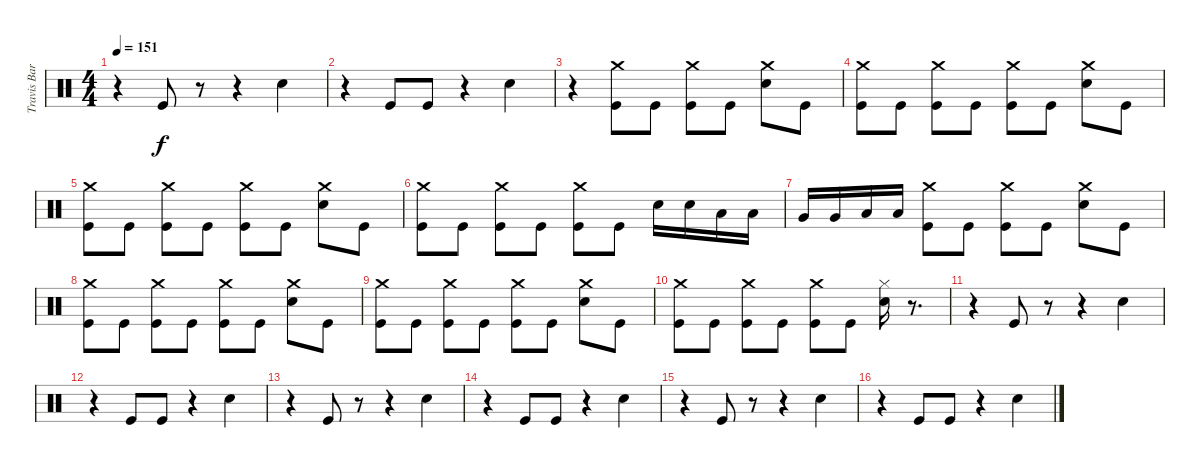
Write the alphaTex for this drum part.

\track ("Travis Barker (Drums)" "Travis Bar") {instrument percussion}
\staff {score}
\articulation defaults
\ts (4 4)
\tempo 151
\clef neutral
\ks c
r.4{dy f} "Kick (hit)".8 r.8 r.4 "Snare (hit) 2".4 |
r.4 "Kick (hit)".8 "Kick (hit)".8 r.4 "Snare (hit) 2".4 |
r.4 ("Kick (hit)" "Crash medium (hit)").8{volume 16} "Kick (hit)".8 ("Kick (hit)" "Crash medium (hit)").8 "Kick (hit)".8 ("Electric Snare (hit)" "Crash medium (hit)").8 "Kick (hit)".8 |
("Kick (hit)" "Crash medium (hit)").8 "Kick (hit)".8 ("Kick (hit)" "Crash medium (hit)").8 "Kick (hit)".8 ("Kick (hit)" "Crash medium (hit)").8 "Kick (hit)".8 ("Electric Snare (hit)" "Crash medium (hit)").8 "Kick (hit)".8 |
("Kick (hit)" "Crash medium (hit)").8 "Kick (hit)".8 ("Kick (hit)" "Crash medium (hit)").8 "Kick (hit)".8 ("Kick (hit)" "Crash medium (hit)").8 "Kick (hit)".8 ("Electric Snare (hit)" "Crash medium (hit)").8 "Kick (hit)".8 |
("Kick (hit)" "Crash medium (hit)").8 "Kick (hit)".8 ("Kick (hit)" "Crash medium (hit)").8 "Kick (hit)".8 ("Kick (hit)" "Crash medium (hit)").8 "Kick (hit)".8 "Electric Snare (hit)".16 "Electric Snare (hit)".16 "Low Tom (hit)".16 "Low Tom (hit)".16 |
"Very Low Tom (hit)".16 "Very Low Tom (hit)".16 "Low Floor Tom (hit)".16 "Low Floor Tom (hit)".16 ("Kick (hit)" "Crash medium (hit)").8 "Kick (hit)".8 ("Kick (hit)" "Crash medium (hit)").8 "Kick (hit)".8 ("Electric Snare (hit)" "Crash medium (hit)").8 "Kick (hit)".8 |
("Kick (hit)" "Crash medium (hit)").8 "Kick (hit)".8 ("Kick (hit)" "Crash medium (hit)").8 "Kick (hit)".8 ("Kick (hit)" "Crash medium (hit)").8 "Kick (hit)".8 ("Electric Snare (hit)" "Crash medium (hit)").8 "Kick (hit)".8 |
("Kick (hit)" "Crash medium (hit)").8 "Kick (hit)".8 ("Kick (hit)" "Crash medium (hit)").8 "Kick (hit)".8 ("Kick (hit)" "Crash medium (hit)").8 "Kick (hit)".8 ("Electric Snare (hit)" "Crash medium (hit)").8 "Kick (hit)".8 |
("Kick (hit)" "Crash medium (hit)").8 "Kick (hit)".8 ("Kick (hit)" "Crash medium (hit)").8 "Kick (hit)".8 ("Kick (hit)" "Crash medium (hit)").8 "Kick (hit)".8 ("Electric Snare (hit)" "Hi-Hat (closed)").16 r.8{d} |
r.4 "Kick (hit)".8 r.8 r.4 "Snare (hit) 2".4 |
r.4 "Kick (hit)".8 "Kick (hit)".8 r.4 "Snare (hit) 2".4 |
r.4 "Kick (hit)".8 r.8 r.4 "Snare (hit) 2".4 |
r.4 "Kick (hit)".8 "Kick (hit)".8 r.4 "Snare (hit) 2".4 |
r.4 "Kick (hit)".8 r.8 r.4 "Snare (hit) 2".4 |
r.4 "Kick (hit)".8 "Kick (hit)".8 r.4 "Snare (hit) 2".4
